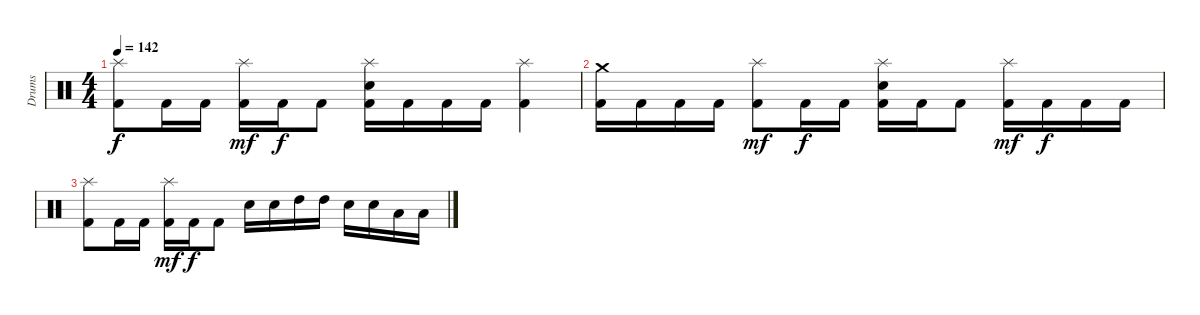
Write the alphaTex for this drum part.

\track ("Drums" "Drums") {instrument percussion}
\staff {score}
\articulation defaults
\ts (4 4)
\tempo 142
\clef neutral
\ks c
("Splash (hit)" "Kick (hit) 2").8{dy f} "Kick (hit) 2".16 "Kick (hit) 2".16 ("Splash (hit)" "Kick (hit) 2").16{dy mf} "Kick (hit) 2".16{dy f} "Kick (hit) 2".8 ("Splash (hit)" "Electric Snare (hit)" "Kick (hit) 2").16 "Kick (hit) 2".16 "Kick (hit) 2".16 "Kick (hit) 2".16 ("Splash (hit)" "Kick (hit) 2").4 |
("Crash medium (hit)" "Kick (hit) 2").16 "Kick (hit) 2".16 "Kick (hit) 2".16 "Kick (hit) 2".16 ("Splash (hit)" "Kick (hit) 2").8{dy mf} "Kick (hit) 2".16{dy f} "Kick (hit) 2".16 ("Splash (hit)" "Electric Snare (hit)" "Kick (hit) 2").16 "Kick (hit) 2".16 "Kick (hit) 2".8 ("Splash (hit)" "Kick (hit) 2").16{dy mf} "Kick (hit) 2".16{dy f} "Kick (hit) 2".16 "Kick (hit) 2".16 |
("Splash (hit)" "Kick (hit) 2").8 "Kick (hit) 2".16 "Kick (hit) 2".16 ("Splash (hit)" "Kick (hit) 2").16{dy mf} "Kick (hit) 2".16{dy f} "Kick (hit) 2".8 "Electric Snare (hit)".16 "Electric Snare (hit)".16 "High Tom (hit)".16 "High Tom (hit)".16 "Electric Snare (hit)".16 "Electric Snare (hit)".16 "Low Tom (hit)".16 "Low Tom (hit)".16
